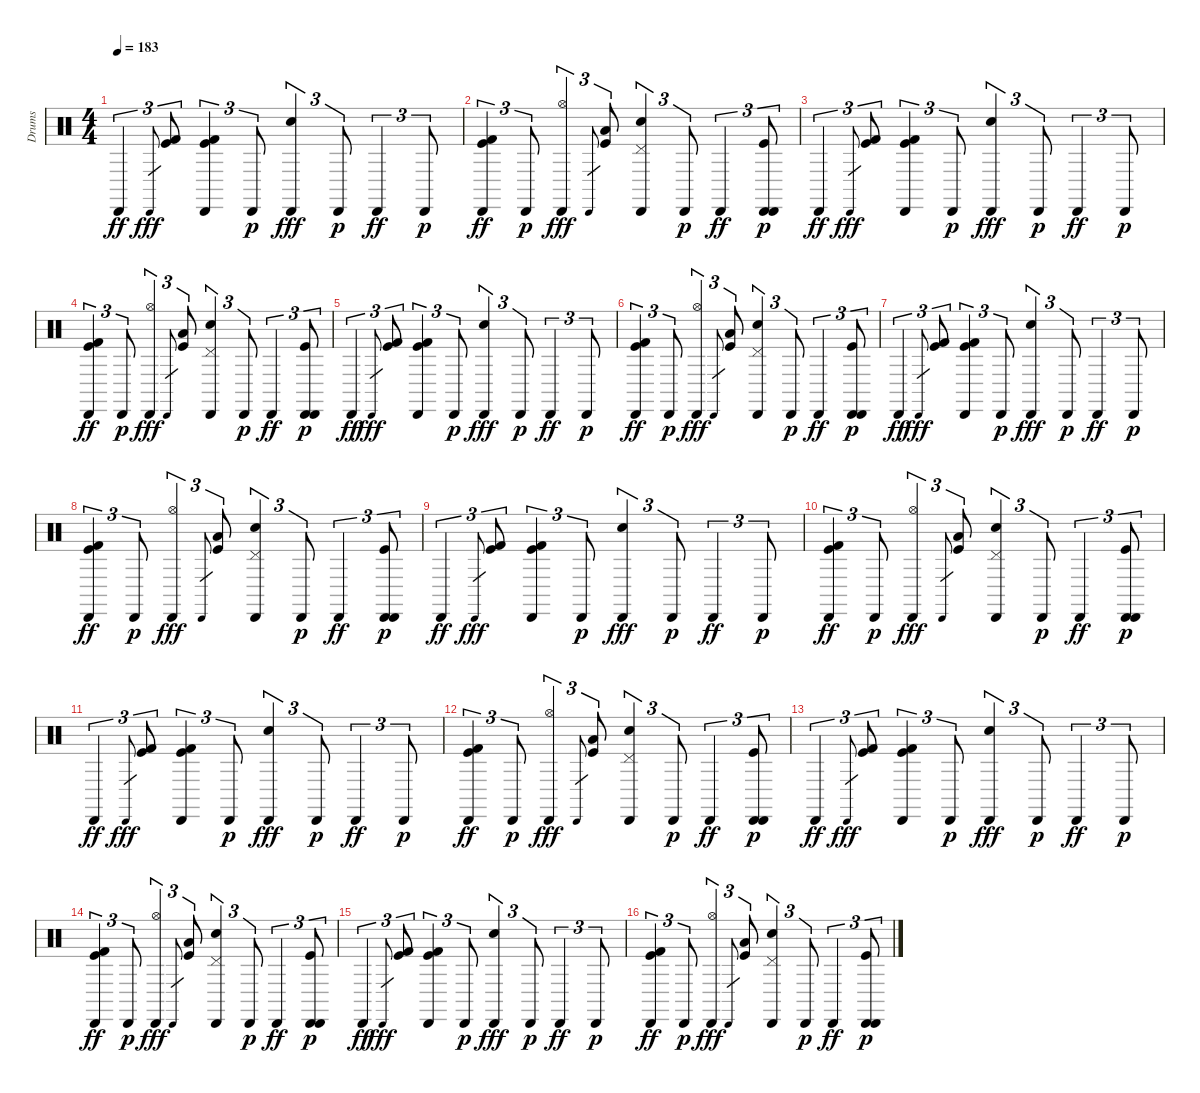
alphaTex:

\track ("Drums" "Drums") {instrument percussion}
\staff {score}
\articulation defaults
\ts (4 4)
\tempo 183
\clef neutral
\ks c "Cabasa (hit)".4{tu (3 2) dy ff} "Cabasa (hit)".8{gr dy fff}
("Kick (hit)" "Kick (hit) 2").8{tu (3 2)} ("Cabasa (hit)" "Kick (hit)" "Kick (hit) 2").4{tu (3 2)} "Cabasa (hit)".8{tu (3 2) dy p} ("Cabasa (hit)" "Electric Snare (hit)").4{tu (3 2) dy fff} "Cabasa (hit)".8{tu (3 2) dy p} "Cabasa (hit)".4{tu (3 2) dy ff} "Cabasa (hit)".8{tu (3 2) dy p} |
("Kick (hit) 2" "Kick (hit)" "Cabasa (hit)").4{tu (3 2) dy ff} "Cabasa (hit)".8{tu (3 2) dy p} ("Cabasa (hit)" "Hi-Hat (open)").4{tu (3 2) dy fff} "Cabasa (hit)".8{gr} ("Kick (hit)" "Low Floor Tom (hit)").8{tu (3 2)} ("Cabasa (hit)" "Electric Snare (hit)" "Pedal Hi-Hat (hit)").4{tu (3 2)} "Cabasa (hit)".8{tu (3 2) dy p} "Cabasa (hit)".4{tu (3 2) dy ff} ("Cabasa (hit)" "Kick (hit)" "Cabasa (hit)").8{tu (3 2) dy p} |
"Cabasa (hit)".4{tu (3 2) dy ff} "Cabasa (hit)".8{gr dy fff} ("Kick (hit)" "Kick (hit) 2").8{tu (3 2)} ("Cabasa (hit)" "Kick (hit)" "Kick (hit) 2").4{tu (3 2)} "Cabasa (hit)".8{tu (3 2) dy p} ("Cabasa (hit)" "Electric Snare (hit)").4{tu (3 2) dy fff} "Cabasa (hit)".8{tu (3 2) dy p} "Cabasa (hit)".4{tu (3 2) dy ff} "Cabasa (hit)".8{tu (3 2) dy p} |
("Kick (hit) 2" "Kick (hit)" "Cabasa (hit)").4{tu (3 2) dy ff} "Cabasa (hit)".8{tu (3 2) dy p} ("Cabasa (hit)" "Hi-Hat (open)").4{tu (3 2) dy fff} "Cabasa (hit)".8{gr} ("Kick (hit)" "Low Floor Tom (hit)").8{tu (3 2)} ("Cabasa (hit)" "Electric Snare (hit)" "Pedal Hi-Hat (hit)").4{tu (3 2)} "Cabasa (hit)".8{tu (3 2) dy p} "Cabasa (hit)".4{tu (3 2) dy ff} ("Cabasa (hit)" "Kick (hit)" "Cabasa (hit)").8{tu (3 2) dy p} |
"Cabasa (hit)".4{tu (3 2) dy ff} "Cabasa (hit)".8{gr dy fff} ("Kick (hit)" "Kick (hit) 2").8{tu (3 2)} ("Cabasa (hit)" "Kick (hit)" "Kick (hit) 2").4{tu (3 2)} "Cabasa (hit)".8{tu (3 2) dy p} ("Cabasa (hit)" "Electric Snare (hit)").4{tu (3 2) dy fff} "Cabasa (hit)".8{tu (3 2) dy p} "Cabasa (hit)".4{tu (3 2) dy ff} "Cabasa (hit)".8{tu (3 2) dy p} |
("Kick (hit) 2" "Kick (hit)" "Cabasa (hit)").4{tu (3 2) dy ff} "Cabasa (hit)".8{tu (3 2) dy p} ("Cabasa (hit)" "Hi-Hat (open)").4{tu (3 2) dy fff} "Cabasa (hit)".8{gr} ("Kick (hit)" "Low Floor Tom (hit)").8{tu (3 2)} ("Cabasa (hit)" "Electric Snare (hit)" "Pedal Hi-Hat (hit)").4{tu (3 2)} "Cabasa (hit)".8{tu (3 2) dy p} "Cabasa (hit)".4{tu (3 2) dy ff} ("Cabasa (hit)" "Kick (hit)" "Cabasa (hit)").8{tu (3 2) dy p} |
"Cabasa (hit)".4{tu (3 2) dy ff} "Cabasa (hit)".8{gr dy fff} ("Kick (hit)" "Kick (hit) 2").8{tu (3 2)} ("Cabasa (hit)" "Kick (hit)" "Kick (hit) 2").4{tu (3 2)} "Cabasa (hit)".8{tu (3 2) dy p} ("Cabasa (hit)" "Electric Snare (hit)").4{tu (3 2) dy fff} "Cabasa (hit)".8{tu (3 2) dy p} "Cabasa (hit)".4{tu (3 2) dy ff} "Cabasa (hit)".8{tu (3 2) dy p} |
("Kick (hit) 2" "Kick (hit)" "Cabasa (hit)").4{tu (3 2) dy ff} "Cabasa (hit)".8{tu (3 2) dy p} ("Cabasa (hit)" "Hi-Hat (open)").4{tu (3 2) dy fff} "Cabasa (hit)".8{gr} ("Kick (hit)" "Low Floor Tom (hit)").8{tu (3 2)} ("Cabasa (hit)" "Electric Snare (hit)" "Pedal Hi-Hat (hit)").4{tu (3 2)} "Cabasa (hit)".8{tu (3 2) dy p} "Cabasa (hit)".4{tu (3 2) dy ff} ("Cabasa (hit)" "Kick (hit)" "Cabasa (hit)").8{tu (3 2) dy p} |
"Cabasa (hit)".4{tu (3 2) dy ff} "Cabasa (hit)".8{gr dy fff} ("Kick (hit)" "Kick (hit) 2").8{tu (3 2)} ("Cabasa (hit)" "Kick (hit)" "Kick (hit) 2").4{tu (3 2)} "Cabasa (hit)".8{tu (3 2) dy p} ("Cabasa (hit)" "Electric Snare (hit)").4{tu (3 2) dy fff} "Cabasa (hit)".8{tu (3 2) dy p} "Cabasa (hit)".4{tu (3 2) dy ff} "Cabasa (hit)".8{tu (3 2) dy p} |
("Kick (hit) 2" "Kick (hit)" "Cabasa (hit)").4{tu (3 2) dy ff} "Cabasa (hit)".8{tu (3 2) dy p} ("Cabasa (hit)" "Hi-Hat (open)").4{tu (3 2) dy fff} "Cabasa (hit)".8{gr} ("Kick (hit)" "Low Floor Tom (hit)").8{tu (3 2)} ("Cabasa (hit)" "Electric Snare (hit)" "Pedal Hi-Hat (hit)").4{tu (3 2)} "Cabasa (hit)".8{tu (3 2) dy p} "Cabasa (hit)".4{tu (3 2) dy ff} ("Cabasa (hit)" "Kick (hit)" "Cabasa (hit)").8{tu (3 2) dy p} |
"Cabasa (hit)".4{tu (3 2) dy ff} "Cabasa (hit)".8{gr dy fff} ("Kick (hit)" "Kick (hit) 2").8{tu (3 2)} ("Cabasa (hit)" "Kick (hit)" "Kick (hit) 2").4{tu (3 2)} "Cabasa (hit)".8{tu (3 2) dy p} ("Cabasa (hit)" "Electric Snare (hit)").4{tu (3 2) dy fff} "Cabasa (hit)".8{tu (3 2) dy p} "Cabasa (hit)".4{tu (3 2) dy ff} "Cabasa (hit)".8{tu (3 2) dy p} |
("Kick (hit) 2" "Kick (hit)" "Cabasa (hit)").4{tu (3 2) dy ff} "Cabasa (hit)".8{tu (3 2) dy p} ("Cabasa (hit)" "Hi-Hat (open)").4{tu (3 2) dy fff} "Cabasa (hit)".8{gr} ("Kick (hit)" "Low Floor Tom (hit)").8{tu (3 2)} ("Cabasa (hit)" "Electric Snare (hit)" "Pedal Hi-Hat (hit)").4{tu (3 2)} "Cabasa (hit)".8{tu (3 2) dy p} "Cabasa (hit)".4{tu (3 2) dy ff} ("Cabasa (hit)" "Kick (hit)" "Cabasa (hit)").8{tu (3 2) dy p} |
"Cabasa (hit)".4{tu (3 2) dy ff} "Cabasa (hit)".8{gr dy fff} ("Kick (hit)" "Kick (hit) 2").8{tu (3 2)} ("Cabasa (hit)" "Kick (hit)" "Kick (hit) 2").4{tu (3 2)} "Cabasa (hit)".8{tu (3 2) dy p} ("Cabasa (hit)" "Electric Snare (hit)").4{tu (3 2) dy fff} "Cabasa (hit)".8{tu (3 2) dy p} "Cabasa (hit)".4{tu (3 2) dy ff} "Cabasa (hit)".8{tu (3 2) dy p} |
("Kick (hit) 2" "Kick (hit)" "Cabasa (hit)").4{tu (3 2) dy ff} "Cabasa (hit)".8{tu (3 2) dy p} ("Cabasa (hit)" "Hi-Hat (open)").4{tu (3 2) dy fff} "Cabasa (hit)".8{gr} ("Kick (hit)" "Low Floor Tom (hit)").8{tu (3 2)} ("Cabasa (hit)" "Electric Snare (hit)" "Pedal Hi-Hat (hit)").4{tu (3 2)} "Cabasa (hit)".8{tu (3 2) dy p} "Cabasa (hit)".4{tu (3 2) dy ff} ("Cabasa (hit)" "Kick (hit)" "Cabasa (hit)").8{tu (3 2) dy p} |
"Cabasa (hit)".4{tu (3 2) dy ff} "Cabasa (hit)".8{gr dy fff} ("Kick (hit)" "Kick (hit) 2").8{tu (3 2)} ("Cabasa (hit)" "Kick (hit)" "Kick (hit) 2").4{tu (3 2)} "Cabasa (hit)".8{tu (3 2) dy p} ("Cabasa (hit)" "Electric Snare (hit)").4{tu (3 2) dy fff} "Cabasa (hit)".8{tu (3 2) dy p} "Cabasa (hit)".4{tu (3 2) dy ff} "Cabasa (hit)".8{tu (3 2) dy p} |
("Kick (hit) 2" "Kick (hit)" "Cabasa (hit)").4{tu (3 2) dy ff} "Cabasa (hit)".8{tu (3 2) dy p} ("Cabasa (hit)" "Hi-Hat (open)").4{tu (3 2) dy fff} "Cabasa (hit)".8{gr} ("Kick (hit)" "Low Floor Tom (hit)").8{tu (3 2)} ("Cabasa (hit)" "Electric Snare (hit)" "Pedal Hi-Hat (hit)").4{tu (3 2)} "Cabasa (hit)".8{tu (3 2) dy p} "Cabasa (hit)".4{tu (3 2) dy ff} ("Cabasa (hit)" "Kick (hit)" "Cabasa (hit)").8{tu (3 2) dy p}
